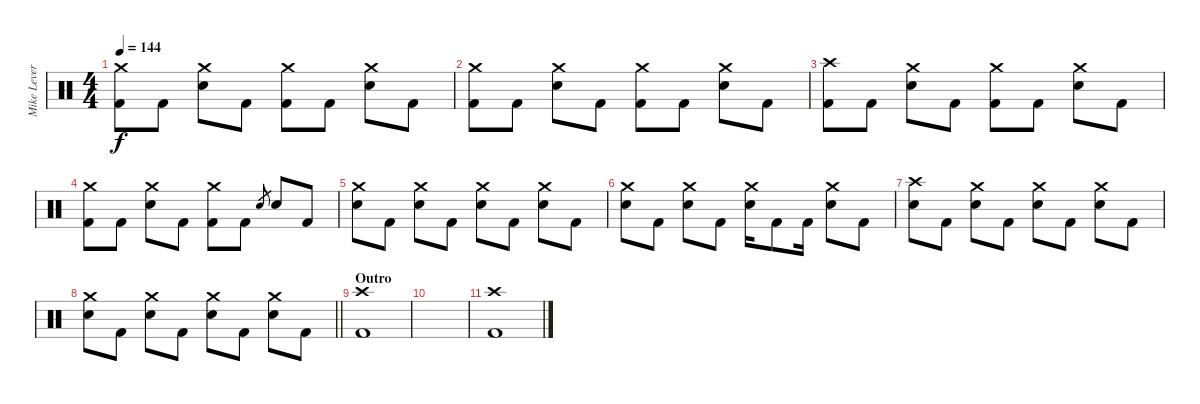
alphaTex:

\track ("Mike Leverence - Drums" "Mike Lever") {instrument percussion}
\staff {score}
\articulation defaults
\ts (4 4)
\tempo 144
\clef neutral
\ks c
("Crash medium (hit)" "Kick (hit) 2").8{dy f} "Kick (hit) 2".8 ("Crash medium (hit)" "Electric Snare (hit)").8 "Kick (hit) 2".8 ("Crash medium (hit)" "Kick (hit) 2").8 "Kick (hit) 2".8 ("Crash medium (hit)" "Electric Snare (hit)").8 "Kick (hit) 2".8 |
("Crash medium (hit)" "Kick (hit) 2").8 "Kick (hit) 2".8 ("Crash medium (hit)" "Electric Snare (hit)").8 "Kick (hit) 2".8 ("Crash medium (hit)" "Kick (hit) 2").8 "Kick (hit) 2".8 ("Crash medium (hit)" "Electric Snare (hit)").8 "Kick (hit) 2".8 |
("Crash high (hit)" "Kick (hit) 2").8 "Kick (hit) 2".8 ("Crash medium (hit)" "Electric Snare (hit)").8 "Kick (hit) 2".8 ("Crash medium (hit)" "Kick (hit) 2").8 "Kick (hit) 2".8 ("Crash medium (hit)" "Electric Snare (hit)").8 "Kick (hit) 2".8 |
("Crash medium (hit)" "Kick (hit) 2").8 "Kick (hit) 2".8 ("Crash medium (hit)" "Electric Snare (hit)").8 "Kick (hit) 2".8 ("Crash medium (hit)" "Kick (hit) 2").8 "Kick (hit) 2".8 "Electric Snare (hit)".8{gr} "Electric Snare (hit)".8 "Kick (hit) 2".8 |
("Crash medium (hit)" "Electric Snare (hit)").8 "Kick (hit) 2".8 ("Crash medium (hit)" "Electric Snare (hit)").8 "Kick (hit) 2".8 ("Crash medium (hit)" "Electric Snare (hit)").8 "Kick (hit) 2".8 ("Crash medium (hit)" "Electric Snare (hit)").8 "Kick (hit) 2".8 |
("Crash medium (hit)" "Electric Snare (hit)").8 "Kick (hit) 2".8 ("Crash medium (hit)" "Electric Snare (hit)").8 "Kick (hit) 2".8 ("Crash medium (hit)" "Electric Snare (hit)").16 "Kick (hit) 2".8 "Kick (hit) 2".16 ("Crash medium (hit)" "Electric Snare (hit)").8 "Kick (hit) 2".8 |
("Crash high (hit)" "Electric Snare (hit)").8 "Kick (hit) 2".8 ("Crash medium (hit)" "Electric Snare (hit)").8 "Kick (hit) 2".8 ("Crash medium (hit)" "Electric Snare (hit)").8 "Kick (hit) 2".8 ("Crash medium (hit)" "Electric Snare (hit)").8 "Kick (hit) 2".8 |
\barLineRight lightlight
("Crash medium (hit)" "Electric Snare (hit)").8 "Kick (hit) 2".8 ("Crash medium (hit)" "Electric Snare (hit)").8 "Kick (hit) 2".8 ("Crash medium (hit)" "Electric Snare (hit)").8 "Kick (hit) 2".8 ("Crash medium (hit)" "Electric Snare (hit)").8 "Kick (hit) 2".8 |
\section ("" "Outro")
("Crash high (hit)" "Kick (hit) 2").1 |
|
("Crash high (hit)" "Kick (hit) 2").1
